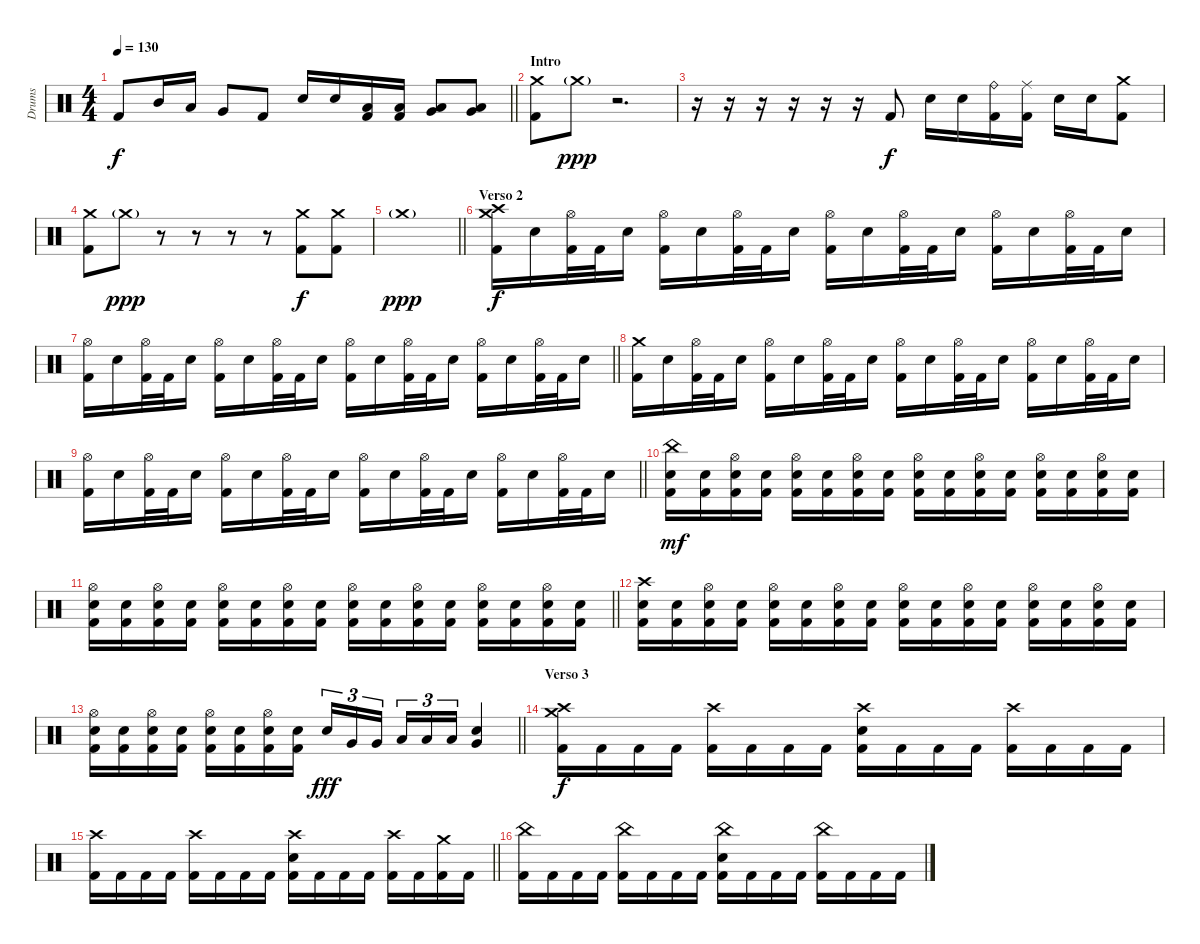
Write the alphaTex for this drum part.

\track ("Drums" "Drums") {instrument percussion}
\staff {score}
\articulation defaults
\ts (4 4)
\tempo 130
\clef neutral
\barLineRight lightlight
\ks c "Kick (hit) 2".8{dy f} "Mid Tom (hit)".16 "Low Tom (hit)".16 "Very Low Tom (hit)".8 "Kick (hit) 2".8 "Electric Snare (hit)".16 "Electric Snare (hit)".16
("Low Tom (hit)" "Kick (hit) 2").16 ("Low Tom (hit)" "Kick (hit) 2").16 ("Low Floor Tom (hit)" "Very Low Tom (hit)").8 ("Low Floor Tom (hit)" "Very Low Tom (hit)").8 |
\section ("" "Intro")
("Crash medium (hit)" "Kick (hit) 2").8 "Crash medium (hit)"{g}.8{dy ppp} r.2{d} |
r.16 r.16 r.16 r.16 r.16 r.16 "Kick (hit) 2".8{dy f} "Electric Snare (hit)".16 "Electric Snare (hit)".16 ("Ride (bell)" "Kick (hit) 2").16 ("Ride (middle)" "Kick (hit) 2").16 "Electric Snare (hit)".16 "Electric Snare (hit)".16 ("Crash medium (hit)" "Kick (hit) 2").8 |
("Crash medium (hit)" "Kick (hit) 2").8 "Crash medium (hit)"{g}.8{dy ppp} r.8 r.8 r.8 r.8 ("Crash medium (hit)" "Kick (hit) 2").8{dy f} ("Crash medium (hit)" "Kick (hit) 2").8 |
\barLineRight lightlight "Crash medium (hit)"{g}.1{dy ppp}
|
\section ("" "Verso 2")
("Crash medium (hit)" "Crash high (hit)" "Kick (hit) 2").16{dy f} "Electric Snare (hit)".16 ("Hi-Hat (open)" "Kick (hit) 2").32 "Kick (hit) 2".32 "Electric Snare (hit)".16 ("Hi-Hat (open)" "Kick (hit) 2").16 "Electric Snare (hit)".16 ("Hi-Hat (open)" "Kick (hit) 2").32 "Kick (hit) 2".32 "Electric Snare (hit)".16 ("Hi-Hat (open)" "Kick (hit) 2").16 "Electric Snare (hit)".16 ("Hi-Hat (open)" "Kick (hit) 2").32 "Kick (hit) 2".32 "Electric Snare (hit)".16 ("Hi-Hat (open)" "Kick (hit) 2").16 "Electric Snare (hit)".16 ("Hi-Hat (open)" "Kick (hit) 2").32 "Kick (hit) 2".32 "Electric Snare (hit)".16 |
\barLineRight lightlight
("Hi-Hat (open)" "Kick (hit) 2").16 "Electric Snare (hit)".16 ("Hi-Hat (open)" "Kick (hit) 2").32 "Kick (hit) 2".32 "Electric Snare (hit)".16 ("Hi-Hat (open)" "Kick (hit) 2").16 "Electric Snare (hit)".16 ("Hi-Hat (open)" "Kick (hit) 2").32 "Kick (hit) 2".32 "Electric Snare (hit)".16 ("Hi-Hat (open)" "Kick (hit) 2").16 "Electric Snare (hit)".16 ("Hi-Hat (open)" "Kick (hit) 2").32 "Kick (hit) 2".32 "Electric Snare (hit)".16 ("Hi-Hat (open)" "Kick (hit) 2").16 "Electric Snare (hit)".16 ("Hi-Hat (open)" "Kick (hit) 2").32 "Kick (hit) 2".32 "Electric Snare (hit)".16 |
("Crash medium (hit)" "Kick (hit) 2").16 "Electric Snare (hit)".16 ("Hi-Hat (open)" "Kick (hit) 2").32 "Kick (hit) 2".32 "Electric Snare (hit)".16 ("Hi-Hat (open)" "Kick (hit) 2").16 "Electric Snare (hit)".16 ("Hi-Hat (open)" "Kick (hit) 2").32 "Kick (hit) 2".32 "Electric Snare (hit)".16 ("Hi-Hat (open)" "Kick (hit) 2").16 "Electric Snare (hit)".16 ("Hi-Hat (open)" "Kick (hit) 2").32 "Kick (hit) 2".32 "Electric Snare (hit)".16 ("Hi-Hat (open)" "Kick (hit) 2").16 "Electric Snare (hit)".16 ("Hi-Hat (open)" "Kick (hit) 2").32 "Kick (hit) 2".32 "Electric Snare (hit)".16 |
\barLineRight lightlight
("Hi-Hat (open)" "Kick (hit) 2").16 "Electric Snare (hit)".16 ("Hi-Hat (open)" "Kick (hit) 2").32 "Kick (hit) 2".32 "Electric Snare (hit)".16 ("Hi-Hat (open)" "Kick (hit) 2").16 "Electric Snare (hit)".16 ("Hi-Hat (open)" "Kick (hit) 2").32 "Kick (hit) 2".32 "Electric Snare (hit)".16 ("Hi-Hat (open)" "Kick (hit) 2").16 "Electric Snare (hit)".16 ("Hi-Hat (open)" "Kick (hit) 2").32 "Kick (hit) 2".32 "Electric Snare (hit)".16 ("Hi-Hat (open)" "Kick (hit) 2").16 "Electric Snare (hit)".16 ("Hi-Hat (open)" "Kick (hit) 2").32 "Kick (hit) 2".32 "Electric Snare (hit)".16 |
("China (hit)" "Electric Snare (hit)" "Kick (hit) 2").16{dy mf} ("Electric Snare (hit)" "Kick (hit) 2").16 ("Hi-Hat (open)" "Electric Snare (hit)" "Kick (hit) 2").16 ("Electric Snare (hit)" "Kick (hit) 2").16 ("Hi-Hat (open)" "Electric Snare (hit)" "Kick (hit) 2").16 ("Electric Snare (hit)" "Kick (hit) 2").16 ("Hi-Hat (open)" "Electric Snare (hit)" "Kick (hit) 2").16 ("Electric Snare (hit)" "Kick (hit) 2").16 ("Hi-Hat (open)" "Electric Snare (hit)" "Kick (hit) 2").16 ("Electric Snare (hit)" "Kick (hit) 2").16 ("Hi-Hat (open)" "Electric Snare (hit)" "Kick (hit) 2").16 ("Electric Snare (hit)" "Kick (hit) 2").16 ("Hi-Hat (open)" "Electric Snare (hit)" "Kick (hit) 2").16 ("Electric Snare (hit)" "Kick (hit) 2").16 ("Hi-Hat (open)" "Electric Snare (hit)" "Kick (hit) 2").16 ("Electric Snare (hit)" "Kick (hit) 2").16 |
\barLineRight lightlight
("Hi-Hat (open)" "Electric Snare (hit)" "Kick (hit) 2").16 ("Electric Snare (hit)" "Kick (hit) 2").16 ("Hi-Hat (open)" "Electric Snare (hit)" "Kick (hit) 2").16 ("Electric Snare (hit)" "Kick (hit) 2").16 ("Hi-Hat (open)" "Electric Snare (hit)" "Kick (hit) 2").16 ("Electric Snare (hit)" "Kick (hit) 2").16 ("Hi-Hat (open)" "Electric Snare (hit)" "Kick (hit) 2").16 ("Electric Snare (hit)" "Kick (hit) 2").16 ("Hi-Hat (open)" "Electric Snare (hit)" "Kick (hit) 2").16 ("Electric Snare (hit)" "Kick (hit) 2").16 ("Hi-Hat (open)" "Electric Snare (hit)" "Kick (hit) 2").16 ("Electric Snare (hit)" "Kick (hit) 2").16 ("Hi-Hat (open)" "Electric Snare (hit)" "Kick (hit) 2").16 ("Electric Snare (hit)" "Kick (hit) 2").16 ("Hi-Hat (open)" "Electric Snare (hit)" "Kick (hit) 2").16 ("Electric Snare (hit)" "Kick (hit) 2").16 |
("Crash high (hit)" "Electric Snare (hit)" "Kick (hit) 2").16 ("Electric Snare (hit)" "Kick (hit) 2").16 ("Hi-Hat (open)" "Electric Snare (hit)" "Kick (hit) 2").16 ("Electric Snare (hit)" "Kick (hit) 2").16 ("Hi-Hat (open)" "Electric Snare (hit)" "Kick (hit) 2").16 ("Electric Snare (hit)" "Kick (hit) 2").16 ("Hi-Hat (open)" "Electric Snare (hit)" "Kick (hit) 2").16 ("Electric Snare (hit)" "Kick (hit) 2").16 ("Hi-Hat (open)" "Electric Snare (hit)" "Kick (hit) 2").16 ("Electric Snare (hit)" "Kick (hit) 2").16 ("Hi-Hat (open)" "Electric Snare (hit)" "Kick (hit) 2").16 ("Electric Snare (hit)" "Kick (hit) 2").16 ("Hi-Hat (open)" "Electric Snare (hit)" "Kick (hit) 2").16 ("Electric Snare (hit)" "Kick (hit) 2").16 ("Hi-Hat (open)" "Electric Snare (hit)" "Kick (hit) 2").16 ("Electric Snare (hit)" "Kick (hit) 2").16 |
\barLineRight lightlight
("Hi-Hat (open)" "Electric Snare (hit)" "Kick (hit) 2").16 ("Electric Snare (hit)" "Kick (hit) 2").16 ("Hi-Hat (open)" "Electric Snare (hit)" "Kick (hit) 2").16 ("Electric Snare (hit)" "Kick (hit) 2").16 ("Hi-Hat (open)" "Electric Snare (hit)" "Kick (hit) 2").16 ("Electric Snare (hit)" "Kick (hit) 2").16 ("Hi-Hat (open)" "Electric Snare (hit)" "Kick (hit) 2").16 ("Electric Snare (hit)" "Kick (hit) 2").16 "Electric Snare (hit)".16{tu (3 2) dy fff} "Very Low Tom (hit)".16{tu (3 2)} "Very Low Tom (hit)".16{tu (3 2) beam splitsecondary} "Low Floor Tom (hit)".16{tu (3 2)} "Low Floor Tom (hit)".16{tu (3 2)} "Low Floor Tom (hit)".16{tu (3 2)} ("Very Low Tom (hit)" "Snare (hit)").4 |
\section ("" "Verso 3")
("Crash high (hit)" "Crash medium (hit)" "Kick (hit) 2").16{dy f} "Kick (hit) 2".16 "Kick (hit) 2".16 "Kick (hit) 2".16 ("Crash high (hit)" "Kick (hit) 2").16 "Kick (hit) 2".16 "Kick (hit) 2".16 "Kick (hit) 2".16 ("Crash high (hit)" "Electric Snare (hit)" "Kick (hit) 2").16 "Kick (hit) 2".16 "Kick (hit) 2".16 "Kick (hit) 2".16 ("Crash high (hit)" "Kick (hit) 2").16 "Kick (hit) 2".16 "Kick (hit) 2".16 "Kick (hit) 2".16 |
\barLineRight lightlight
("Crash high (hit)" "Kick (hit) 2").16 "Kick (hit) 2".16 "Kick (hit) 2".16 "Kick (hit) 2".16 ("Crash high (hit)" "Kick (hit) 2").16 "Kick (hit) 2".16 "Kick (hit) 2".16 "Kick (hit) 2".16 ("Crash high (hit)" "Electric Snare (hit)" "Kick (hit) 2").16 "Kick (hit) 2".16 "Kick (hit) 2".16 "Kick (hit) 2".16 ("Crash high (hit)" "Kick (hit) 2").16 "Kick (hit) 2".16 ("Crash medium (hit)" "Kick (hit) 2").16 "Kick (hit) 2".16 |
("China (hit)" "Kick (hit) 2").16 "Kick (hit) 2".16 "Kick (hit) 2".16 "Kick (hit) 2".16 ("China (hit)" "Kick (hit) 2").16 "Kick (hit) 2".16 "Kick (hit) 2".16 "Kick (hit) 2".16 ("China (hit)" "Electric Snare (hit)" "Kick (hit) 2").16 "Kick (hit) 2".16 "Kick (hit) 2".16 "Kick (hit) 2".16 ("China (hit)" "Kick (hit) 2").16 "Kick (hit) 2".16 "Kick (hit) 2".16 "Kick (hit) 2".16
